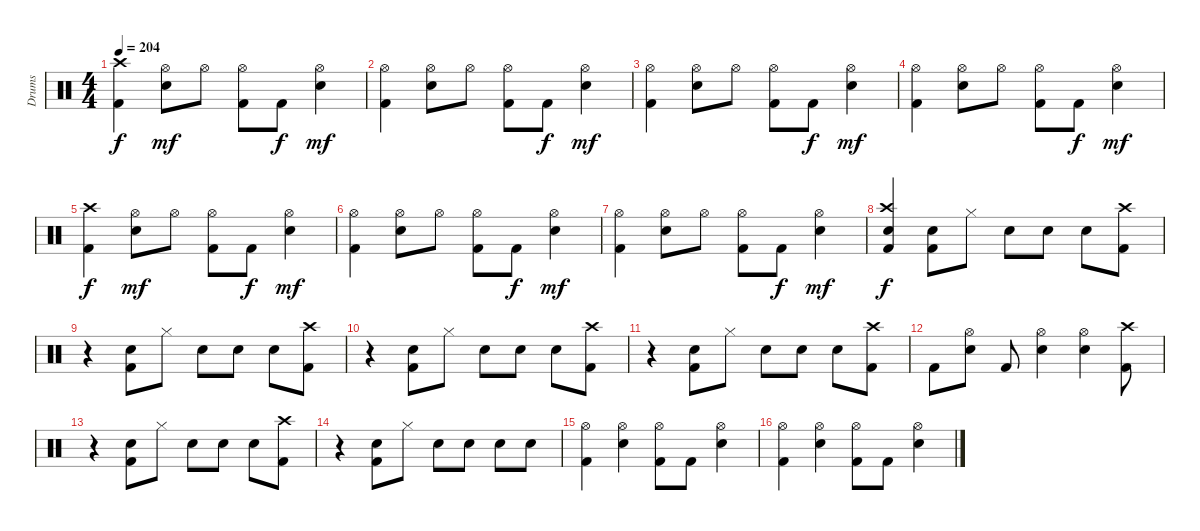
\track ("Drums" "Drums") {instrument percussion}
\staff {score}
\articulation defaults
\ts (4 4)
\tempo 204
\clef neutral
\ks c
("Kick (hit) 2" "Crash high (hit)").4{dy f} ("Snare (hit) 2" "Hi-Hat (open)").8{dy mf} "Hi-Hat (open)".8 ("Kick (hit) 2" "Hi-Hat (open)").8 "Kick (hit) 2".8{dy f} ("Snare (hit) 2" "Hi-Hat (open)").4{dy mf} |
("Kick (hit) 2" "Hi-Hat (open)").4 ("Electric Snare (hit)" "Hi-Hat (open)").8 "Hi-Hat (open)".8 ("Kick (hit) 2" "Hi-Hat (open)").8 "Kick (hit) 2".8{dy f} ("Electric Snare (hit)" "Hi-Hat (open)").4{dy mf} |
("Kick (hit) 2" "Hi-Hat (open)").4 ("Electric Snare (hit)" "Hi-Hat (open)").8 "Hi-Hat (open)".8 ("Kick (hit) 2" "Hi-Hat (open)").8 "Kick (hit) 2".8{dy f} ("Electric Snare (hit)" "Hi-Hat (open)").4{dy mf} |
("Kick (hit) 2" "Hi-Hat (open)").4 ("Electric Snare (hit)" "Hi-Hat (open)").8 "Hi-Hat (open)".8 ("Kick (hit) 2" "Hi-Hat (open)").8 "Kick (hit) 2".8{dy f} ("Electric Snare (hit)" "Hi-Hat (open)").4{dy mf} |
("Kick (hit) 2" "Crash high (hit)").4{dy f} ("Snare (hit) 2" "Hi-Hat (open)").8{dy mf} "Hi-Hat (open)".8 ("Kick (hit) 2" "Hi-Hat (open)").8 "Kick (hit) 2".8{dy f} ("Snare (hit) 2" "Hi-Hat (open)").4{dy mf} |
("Kick (hit) 2" "Hi-Hat (open)").4 ("Electric Snare (hit)" "Hi-Hat (open)").8 "Hi-Hat (open)".8 ("Kick (hit) 2" "Hi-Hat (open)").8 "Kick (hit) 2".8{dy f} ("Electric Snare (hit)" "Hi-Hat (open)").4{dy mf} |
("Kick (hit) 2" "Hi-Hat (open)").4 ("Electric Snare (hit)" "Hi-Hat (open)").8 "Hi-Hat (open)".8 ("Kick (hit) 2" "Hi-Hat (open)").8 "Kick (hit) 2".8{dy f} ("Electric Snare (hit)" "Hi-Hat (open)").4{dy mf} |
("Crash high (hit)" "Electric Snare (hit)" "Kick (hit) 2").4{dy f} ("Electric Snare (hit)" "Kick (hit) 2").8 "Hi-Hat (closed)".8 "Electric Snare (hit)".8 "Electric Snare (hit)".8 "Electric Snare (hit)".8 ("Kick (hit) 2" "Crash high (hit)").8 |
r.4 ("Electric Snare (hit)" "Kick (hit) 2").8 "Hi-Hat (closed)".8 "Electric Snare (hit)".8 "Electric Snare (hit)".8 "Electric Snare (hit)".8 ("Kick (hit) 2" "Crash high (hit)").8 |
r.4 ("Electric Snare (hit)" "Kick (hit) 2").8 "Hi-Hat (closed)".8 "Electric Snare (hit)".8 "Electric Snare (hit)".8 "Electric Snare (hit)".8 ("Kick (hit) 2" "Crash high (hit)").8 |
r.4 ("Electric Snare (hit)" "Kick (hit) 2").8 "Hi-Hat (closed)".8 "Electric Snare (hit)".8 "Electric Snare (hit)".8 "Electric Snare (hit)".8 ("Kick (hit) 2" "Crash high (hit)").8 |
"Kick (hit) 2".8 ("Electric Snare (hit)" "Hi-Hat (open)").8 "Kick (hit) 2".8 ("Electric Snare (hit)" "Hi-Hat (open)").4 ("Electric Snare (hit)" "Hi-Hat (open)").4 ("Crash high (hit)" "Kick (hit) 2").8 |
r.4 ("Electric Snare (hit)" "Kick (hit) 2").8 "Hi-Hat (closed)".8 "Electric Snare (hit)".8 "Electric Snare (hit)".8 "Electric Snare (hit)".8 ("Kick (hit) 2" "Crash high (hit)").8 |
r.4 ("Electric Snare (hit)" "Kick (hit) 2").8 "Hi-Hat (closed)".8 "Electric Snare (hit)".8 "Electric Snare (hit)".8 "Electric Snare (hit)".8 "Electric Snare (hit)".8 |
("Hi-Hat (open)" "Kick (hit) 2").4 ("Hi-Hat (open)" "Electric Snare (hit)").4 ("Hi-Hat (open)" "Kick (hit) 2").8 "Kick (hit) 2".8 ("Hi-Hat (open)" "Electric Snare (hit)").4 |
("Hi-Hat (open)" "Kick (hit) 2").4 ("Hi-Hat (open)" "Electric Snare (hit)").4 ("Hi-Hat (open)" "Kick (hit) 2").8 "Kick (hit) 2".8 ("Hi-Hat (open)" "Electric Snare (hit)").4
